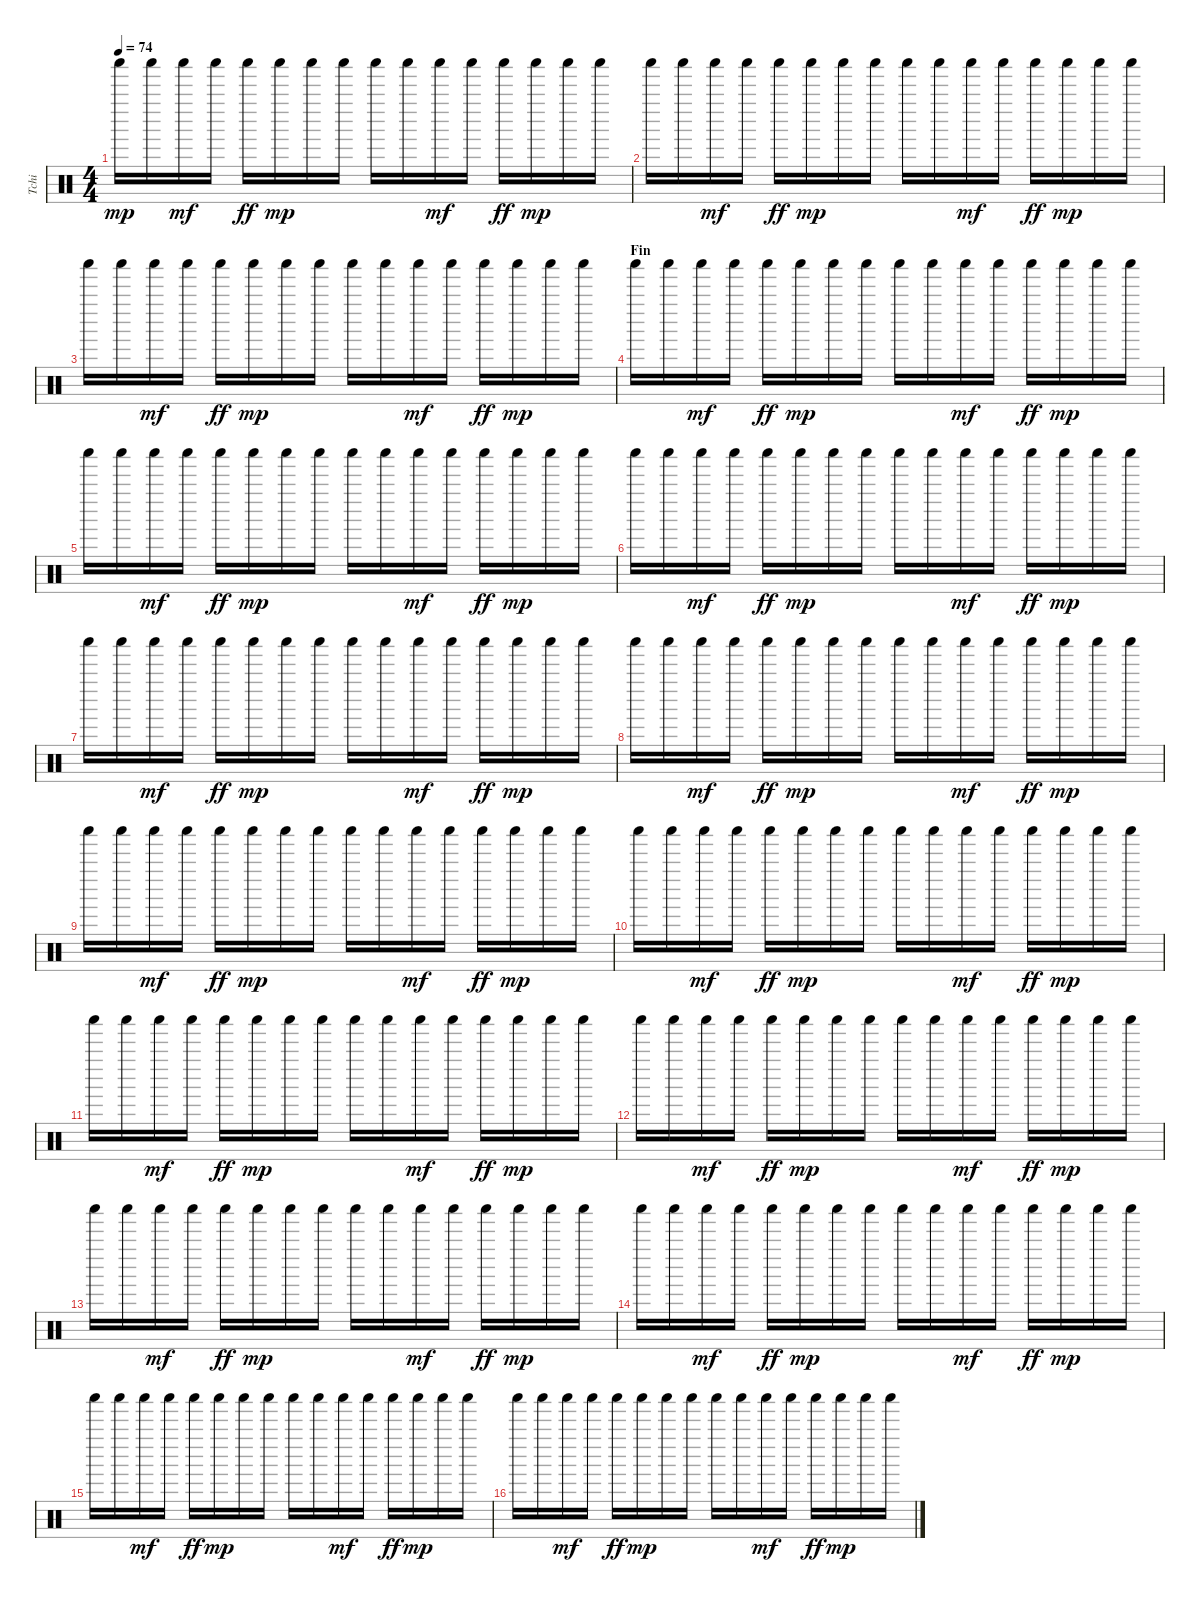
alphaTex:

\track ("Tchi" "Tchi") {instrument percussion}
\staff {score}
\articulation defaults
\ts (4 4)
\tempo 74
\clef neutral
\ks c "Shaker (hit)".16{dy mp} "Shaker (hit)".16 "Shaker (hit)".16{dy mf} "Shaker (hit)".16 "Shaker (hit)".16{dy ff} "Shaker (hit)".16{dy mp} "Shaker (hit)".16 "Shaker (hit)".16 "Shaker (hit)".16 "Shaker (hit)".16 "Shaker (hit)".16{dy mf} "Shaker (hit)".16 "Shaker (hit)".16{dy ff} "Shaker (hit)".16{dy mp} "Shaker (hit)".16 "Shaker (hit)".16
|
"Shaker (hit)".16 "Shaker (hit)".16 "Shaker (hit)".16{dy mf} "Shaker (hit)".16 "Shaker (hit)".16{dy ff} "Shaker (hit)".16{dy mp} "Shaker (hit)".16 "Shaker (hit)".16 "Shaker (hit)".16 "Shaker (hit)".16 "Shaker (hit)".16{dy mf} "Shaker (hit)".16 "Shaker (hit)".16{dy ff} "Shaker (hit)".16{dy mp} "Shaker (hit)".16 "Shaker (hit)".16 |
"Shaker (hit)".16 "Shaker (hit)".16 "Shaker (hit)".16{dy mf} "Shaker (hit)".16 "Shaker (hit)".16{dy ff} "Shaker (hit)".16{dy mp} "Shaker (hit)".16 "Shaker (hit)".16 "Shaker (hit)".16 "Shaker (hit)".16 "Shaker (hit)".16{dy mf} "Shaker (hit)".16 "Shaker (hit)".16{dy ff} "Shaker (hit)".16{dy mp} "Shaker (hit)".16 "Shaker (hit)".16 |
\section ("" "Fin")
"Shaker (hit)".16 "Shaker (hit)".16 "Shaker (hit)".16{dy mf} "Shaker (hit)".16 "Shaker (hit)".16{dy ff} "Shaker (hit)".16{dy mp} "Shaker (hit)".16 "Shaker (hit)".16 "Shaker (hit)".16 "Shaker (hit)".16 "Shaker (hit)".16{dy mf} "Shaker (hit)".16 "Shaker (hit)".16{dy ff} "Shaker (hit)".16{dy mp} "Shaker (hit)".16 "Shaker (hit)".16 |
"Shaker (hit)".16 "Shaker (hit)".16 "Shaker (hit)".16{dy mf} "Shaker (hit)".16 "Shaker (hit)".16{dy ff} "Shaker (hit)".16{dy mp} "Shaker (hit)".16 "Shaker (hit)".16 "Shaker (hit)".16 "Shaker (hit)".16 "Shaker (hit)".16{dy mf} "Shaker (hit)".16 "Shaker (hit)".16{dy ff} "Shaker (hit)".16{dy mp} "Shaker (hit)".16 "Shaker (hit)".16 |
"Shaker (hit)".16 "Shaker (hit)".16 "Shaker (hit)".16{dy mf} "Shaker (hit)".16 "Shaker (hit)".16{dy ff} "Shaker (hit)".16{dy mp} "Shaker (hit)".16 "Shaker (hit)".16 "Shaker (hit)".16 "Shaker (hit)".16 "Shaker (hit)".16{dy mf} "Shaker (hit)".16 "Shaker (hit)".16{dy ff} "Shaker (hit)".16{dy mp} "Shaker (hit)".16 "Shaker (hit)".16 |
"Shaker (hit)".16 "Shaker (hit)".16 "Shaker (hit)".16{dy mf} "Shaker (hit)".16 "Shaker (hit)".16{dy ff} "Shaker (hit)".16{dy mp} "Shaker (hit)".16 "Shaker (hit)".16 "Shaker (hit)".16 "Shaker (hit)".16 "Shaker (hit)".16{dy mf} "Shaker (hit)".16 "Shaker (hit)".16{dy ff} "Shaker (hit)".16{dy mp} "Shaker (hit)".16 "Shaker (hit)".16 |
"Shaker (hit)".16 "Shaker (hit)".16 "Shaker (hit)".16{dy mf} "Shaker (hit)".16 "Shaker (hit)".16{dy ff} "Shaker (hit)".16{dy mp} "Shaker (hit)".16 "Shaker (hit)".16 "Shaker (hit)".16 "Shaker (hit)".16 "Shaker (hit)".16{dy mf} "Shaker (hit)".16 "Shaker (hit)".16{dy ff} "Shaker (hit)".16{dy mp} "Shaker (hit)".16 "Shaker (hit)".16 |
"Shaker (hit)".16 "Shaker (hit)".16 "Shaker (hit)".16{dy mf} "Shaker (hit)".16 "Shaker (hit)".16{dy ff} "Shaker (hit)".16{dy mp} "Shaker (hit)".16 "Shaker (hit)".16 "Shaker (hit)".16 "Shaker (hit)".16 "Shaker (hit)".16{dy mf} "Shaker (hit)".16 "Shaker (hit)".16{dy ff} "Shaker (hit)".16{dy mp} "Shaker (hit)".16 "Shaker (hit)".16 |
"Shaker (hit)".16 "Shaker (hit)".16 "Shaker (hit)".16{dy mf} "Shaker (hit)".16 "Shaker (hit)".16{dy ff} "Shaker (hit)".16{dy mp} "Shaker (hit)".16 "Shaker (hit)".16 "Shaker (hit)".16 "Shaker (hit)".16 "Shaker (hit)".16{dy mf} "Shaker (hit)".16 "Shaker (hit)".16{dy ff} "Shaker (hit)".16{dy mp} "Shaker (hit)".16 "Shaker (hit)".16 |
"Shaker (hit)".16 "Shaker (hit)".16 "Shaker (hit)".16{dy mf} "Shaker (hit)".16 "Shaker (hit)".16{dy ff} "Shaker (hit)".16{dy mp} "Shaker (hit)".16 "Shaker (hit)".16 "Shaker (hit)".16 "Shaker (hit)".16 "Shaker (hit)".16{dy mf} "Shaker (hit)".16 "Shaker (hit)".16{dy ff} "Shaker (hit)".16{dy mp} "Shaker (hit)".16 "Shaker (hit)".16 |
"Shaker (hit)".16 "Shaker (hit)".16 "Shaker (hit)".16{dy mf} "Shaker (hit)".16 "Shaker (hit)".16{dy ff} "Shaker (hit)".16{dy mp} "Shaker (hit)".16 "Shaker (hit)".16 "Shaker (hit)".16 "Shaker (hit)".16 "Shaker (hit)".16{dy mf} "Shaker (hit)".16 "Shaker (hit)".16{dy ff} "Shaker (hit)".16{dy mp} "Shaker (hit)".16 "Shaker (hit)".16 |
"Shaker (hit)".16 "Shaker (hit)".16 "Shaker (hit)".16{dy mf} "Shaker (hit)".16 "Shaker (hit)".16{dy ff} "Shaker (hit)".16{dy mp} "Shaker (hit)".16 "Shaker (hit)".16 "Shaker (hit)".16 "Shaker (hit)".16 "Shaker (hit)".16{dy mf} "Shaker (hit)".16 "Shaker (hit)".16{dy ff} "Shaker (hit)".16{dy mp} "Shaker (hit)".16 "Shaker (hit)".16 |
"Shaker (hit)".16 "Shaker (hit)".16 "Shaker (hit)".16{dy mf} "Shaker (hit)".16 "Shaker (hit)".16{dy ff} "Shaker (hit)".16{dy mp} "Shaker (hit)".16 "Shaker (hit)".16 "Shaker (hit)".16 "Shaker (hit)".16 "Shaker (hit)".16{dy mf} "Shaker (hit)".16 "Shaker (hit)".16{dy ff} "Shaker (hit)".16{dy mp} "Shaker (hit)".16 "Shaker (hit)".16 |
"Shaker (hit)".16 "Shaker (hit)".16 "Shaker (hit)".16{dy mf} "Shaker (hit)".16 "Shaker (hit)".16{dy ff} "Shaker (hit)".16{dy mp} "Shaker (hit)".16 "Shaker (hit)".16 "Shaker (hit)".16 "Shaker (hit)".16 "Shaker (hit)".16{dy mf} "Shaker (hit)".16 "Shaker (hit)".16{dy ff} "Shaker (hit)".16{dy mp} "Shaker (hit)".16 "Shaker (hit)".16 |
"Shaker (hit)".16 "Shaker (hit)".16 "Shaker (hit)".16{dy mf} "Shaker (hit)".16 "Shaker (hit)".16{dy ff} "Shaker (hit)".16{dy mp} "Shaker (hit)".16 "Shaker (hit)".16 "Shaker (hit)".16 "Shaker (hit)".16 "Shaker (hit)".16{dy mf} "Shaker (hit)".16 "Shaker (hit)".16{dy ff} "Shaker (hit)".16{dy mp} "Shaker (hit)".16 "Shaker (hit)".16
